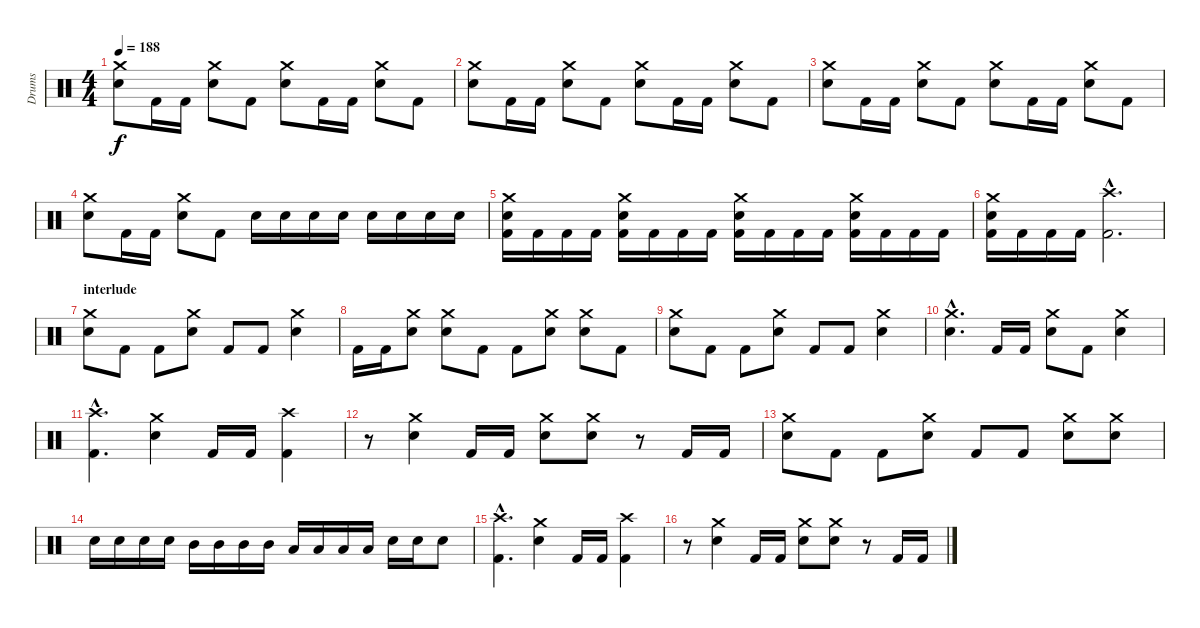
\track ("Drums" "Drums") {instrument percussion}
\staff {score}
\articulation defaults
\ts (4 4)
\tempo 188
\clef neutral
\ks c
("Crash medium (hit)" "Electric Snare (hit)").8{dy f} "Kick (hit) 2".16 "Kick (hit) 2".16 ("Crash medium (hit)" "Electric Snare (hit)").8 "Kick (hit) 2".8 ("Crash medium (hit)" "Electric Snare (hit)").8 "Kick (hit) 2".16 "Kick (hit) 2".16 ("Crash medium (hit)" "Electric Snare (hit)").8 "Kick (hit) 2".8 |
("Crash medium (hit)" "Electric Snare (hit)").8 "Kick (hit) 2".16 "Kick (hit) 2".16 ("Crash medium (hit)" "Electric Snare (hit)").8 "Kick (hit) 2".8 ("Crash medium (hit)" "Electric Snare (hit)").8 "Kick (hit) 2".16 "Kick (hit) 2".16 ("Crash medium (hit)" "Electric Snare (hit)").8 "Kick (hit) 2".8 |
("Crash medium (hit)" "Electric Snare (hit)").8 "Kick (hit) 2".16 "Kick (hit) 2".16 ("Crash medium (hit)" "Electric Snare (hit)").8 "Kick (hit) 2".8 ("Crash medium (hit)" "Electric Snare (hit)").8 "Kick (hit) 2".16 "Kick (hit) 2".16 ("Crash medium (hit)" "Electric Snare (hit)").8 "Kick (hit) 2".8 |
("Crash medium (hit)" "Electric Snare (hit)").8 "Kick (hit) 2".16 "Kick (hit) 2".16 ("Crash medium (hit)" "Electric Snare (hit)").8 "Kick (hit) 2".8 "Electric Snare (hit)".16 "Electric Snare (hit)".16 "Electric Snare (hit)".16 "Electric Snare (hit)".16 "Electric Snare (hit)".16 "Electric Snare (hit)".16 "Electric Snare (hit)".16 "Electric Snare (hit)".16 |
("Crash medium (hit)" "Electric Snare (hit)" "Kick (hit) 2").16 "Kick (hit) 2".16 "Kick (hit) 2".16 "Kick (hit) 2".16 ("Crash medium (hit)" "Electric Snare (hit)" "Kick (hit) 2").16 "Kick (hit) 2".16 "Kick (hit) 2".16 "Kick (hit) 2".16 ("Crash medium (hit)" "Electric Snare (hit)" "Kick (hit) 2").16 "Kick (hit) 2".16 "Kick (hit) 2".16 "Kick (hit) 2".16 ("Crash medium (hit)" "Electric Snare (hit)" "Kick (hit) 2").16 "Kick (hit) 2".16 "Kick (hit) 2".16 "Kick (hit) 2".16 |
("Crash medium (hit)" "Electric Snare (hit)" "Kick (hit) 2").16 "Kick (hit) 2".16 "Kick (hit) 2".16 "Kick (hit) 2".16 ("Crash high (hit)"{hac} "Kick (hit) 2"{hac}).2{d} |
\section ("" "interlude")
("Crash medium (hit)" "Electric Snare (hit)").8 "Kick (hit) 2".8 "Kick (hit) 2".8 ("Crash medium (hit)" "Electric Snare (hit)").8 "Kick (hit) 2".8 "Kick (hit) 2".8 ("Crash medium (hit)" "Electric Snare (hit)").4 |
"Kick (hit) 2".16 "Kick (hit) 2".16 ("Crash medium (hit)" "Electric Snare (hit)").8 ("Crash medium (hit)" "Electric Snare (hit)").8 "Kick (hit) 2".8 "Kick (hit) 2".8 ("Crash medium (hit)" "Electric Snare (hit)").8 ("Crash medium (hit)" "Electric Snare (hit)").8 "Kick (hit) 2".8 |
("Crash medium (hit)" "Electric Snare (hit)").8 "Kick (hit) 2".8 "Kick (hit) 2".8 ("Crash medium (hit)" "Electric Snare (hit)").8 "Kick (hit) 2".8 "Kick (hit) 2".8 ("Crash medium (hit)" "Electric Snare (hit)").4 |
("Crash medium (hit)"{hac} "Electric Snare (hit)"{hac}).4{d} "Kick (hit) 2".16 "Kick (hit) 2".16 ("Crash medium (hit)" "Electric Snare (hit)").8 "Kick (hit) 2".8 ("Crash medium (hit)" "Electric Snare (hit)").4 |
("Crash high (hit)"{hac} "Kick (hit) 2"{hac}).4{d} ("Crash medium (hit)" "Electric Snare (hit)").4 "Kick (hit) 2".16 "Kick (hit) 2".16 ("Crash high (hit)" "Kick (hit) 2").4 |
r.8 ("Crash medium (hit)" "Electric Snare (hit)").4 "Kick (hit) 2".16 "Kick (hit) 2".16 ("Crash medium (hit)" "Electric Snare (hit)").8 ("Crash medium (hit)" "Electric Snare (hit)").8 r.8 "Kick (hit) 2".16 "Kick (hit) 2".16 |
("Crash medium (hit)" "Electric Snare (hit)").8 "Kick (hit) 2".8 "Kick (hit) 2".8 ("Crash medium (hit)" "Electric Snare (hit)").8 "Kick (hit) 2".8 "Kick (hit) 2".8 ("Crash medium (hit)" "Electric Snare (hit)").8 ("Crash medium (hit)" "Electric Snare (hit)").8 |
"Electric Snare (hit)".16 "Electric Snare (hit)".16 "Electric Snare (hit)".16 "Electric Snare (hit)".16 "Mid Tom (hit)".16 "Mid Tom (hit)".16 "Mid Tom (hit)".16 "Mid Tom (hit)".16 "Low Tom (hit)".16 "Low Tom (hit)".16 "Low Tom (hit)".16 "Low Tom (hit)".16 "Electric Snare (hit)".16 "Electric Snare (hit)".16 "Electric Snare (hit)".8 |
("Crash high (hit)"{hac} "Kick (hit) 2"{hac}).4{d} ("Crash medium (hit)" "Electric Snare (hit)").4 "Kick (hit) 2".16 "Kick (hit) 2".16 ("Crash high (hit)" "Kick (hit) 2").4 |
r.8 ("Crash medium (hit)" "Electric Snare (hit)").4 "Kick (hit) 2".16 "Kick (hit) 2".16 ("Crash medium (hit)" "Electric Snare (hit)").8 ("Crash medium (hit)" "Electric Snare (hit)").8 r.8 "Kick (hit) 2".16 "Kick (hit) 2".16
